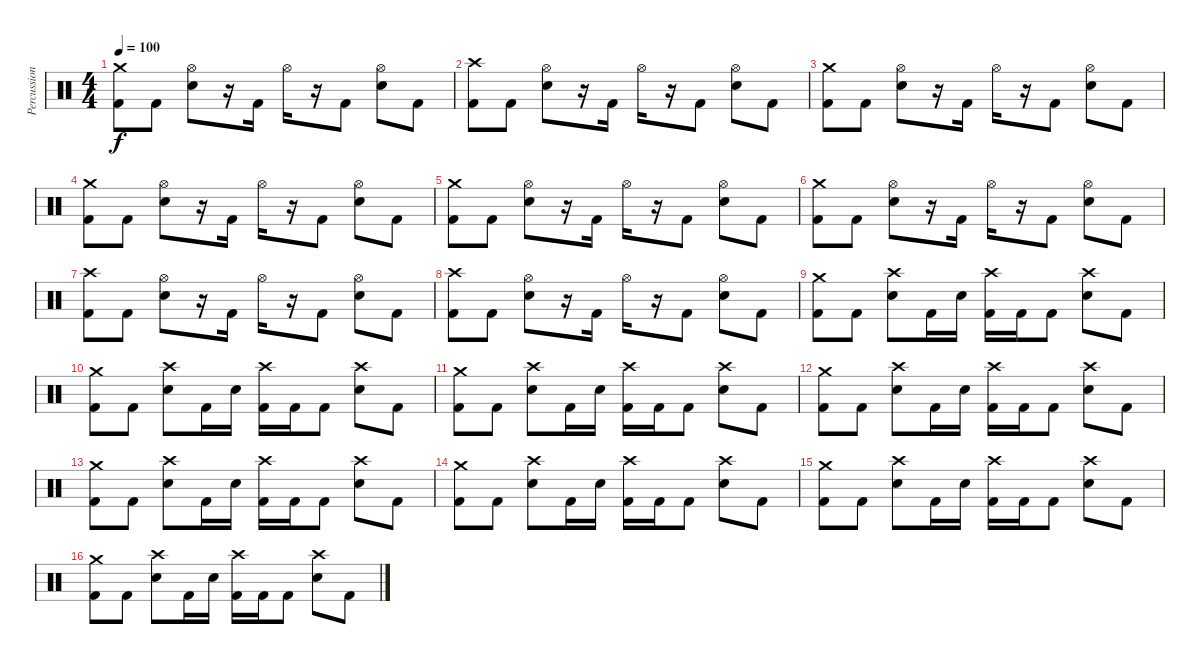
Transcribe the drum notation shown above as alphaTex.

\track ("Percussion" "Percussion") {instrument percussion}
\staff {score}
\articulation defaults
\ts (4 4)
\tempo 100
\clef neutral
\ks c
("Crash medium (hit)" "Kick (hit) 2").8{dy f} "Kick (hit) 2".8 ("Hi-Hat (open)" "Electric Snare (hit)").8 r.16 "Kick (hit) 2".16 "Hi-Hat (open)".16 r.16 "Kick (hit) 2".8 ("Hi-Hat (open)" "Electric Snare (hit)").8 "Kick (hit) 2".8 |
("Crash high (hit)" "Kick (hit) 2").8 "Kick (hit) 2".8 ("Hi-Hat (open)" "Electric Snare (hit)").8 r.16 "Kick (hit) 2".16 "Hi-Hat (open)".16 r.16 "Kick (hit) 2".8 ("Hi-Hat (open)" "Electric Snare (hit)").8 "Kick (hit) 2".8 |
("Crash medium (hit)" "Kick (hit) 2").8 "Kick (hit) 2".8 ("Hi-Hat (open)" "Electric Snare (hit)").8 r.16 "Kick (hit) 2".16 "Hi-Hat (open)".16 r.16 "Kick (hit) 2".8 ("Hi-Hat (open)" "Electric Snare (hit)").8 "Kick (hit) 2".8 |
("Crash medium (hit)" "Kick (hit) 2").8 "Kick (hit) 2".8 ("Hi-Hat (open)" "Electric Snare (hit)").8 r.16 "Kick (hit) 2".16 "Hi-Hat (open)".16 r.16 "Kick (hit) 2".8 ("Hi-Hat (open)" "Electric Snare (hit)").8 "Kick (hit) 2".8 |
("Crash medium (hit)" "Kick (hit) 2").8 "Kick (hit) 2".8 ("Hi-Hat (open)" "Electric Snare (hit)").8 r.16 "Kick (hit) 2".16 "Hi-Hat (open)".16 r.16 "Kick (hit) 2".8 ("Hi-Hat (open)" "Electric Snare (hit)").8 "Kick (hit) 2".8 |
("Crash medium (hit)" "Kick (hit) 2").8 "Kick (hit) 2".8 ("Hi-Hat (open)" "Electric Snare (hit)").8 r.16 "Kick (hit) 2".16 "Hi-Hat (open)".16 r.16 "Kick (hit) 2".8 ("Hi-Hat (open)" "Electric Snare (hit)").8 "Kick (hit) 2".8 |
("Crash high (hit)" "Kick (hit) 2").8 "Kick (hit) 2".8 ("Hi-Hat (open)" "Electric Snare (hit)").8 r.16 "Kick (hit) 2".16 "Hi-Hat (open)".16 r.16 "Kick (hit) 2".8 ("Hi-Hat (open)" "Electric Snare (hit)").8 "Kick (hit) 2".8 |
("Crash high (hit)" "Kick (hit) 2").8 "Kick (hit) 2".8 ("Hi-Hat (open)" "Electric Snare (hit)").8 r.16 "Kick (hit) 2".16 "Hi-Hat (open)".16 r.16 "Kick (hit) 2".8 ("Hi-Hat (open)" "Electric Snare (hit)").8 "Kick (hit) 2".8 |
("Crash medium (hit)" "Kick (hit) 2").8 "Kick (hit) 2".8 ("Crash high (hit)" "Electric Snare (hit)").8 "Kick (hit) 2".16 "Electric Snare (hit)".16 ("Crash high (hit)" "Kick (hit) 2").16 "Kick (hit) 2".16 "Kick (hit) 2".8 ("Crash high (hit)" "Electric Snare (hit)").8 "Kick (hit) 2".8 |
("Crash medium (hit)" "Kick (hit) 2").8 "Kick (hit) 2".8 ("Crash high (hit)" "Electric Snare (hit)").8 "Kick (hit) 2".16 "Electric Snare (hit)".16 ("Crash high (hit)" "Kick (hit) 2").16 "Kick (hit) 2".16 "Kick (hit) 2".8 ("Crash high (hit)" "Electric Snare (hit)").8 "Kick (hit) 2".8 |
("Crash medium (hit)" "Kick (hit) 2").8 "Kick (hit) 2".8 ("Crash high (hit)" "Electric Snare (hit)").8 "Kick (hit) 2".16 "Electric Snare (hit)".16 ("Crash high (hit)" "Kick (hit) 2").16 "Kick (hit) 2".16 "Kick (hit) 2".8 ("Crash high (hit)" "Electric Snare (hit)").8 "Kick (hit) 2".8 |
("Crash medium (hit)" "Kick (hit) 2").8 "Kick (hit) 2".8 ("Crash high (hit)" "Electric Snare (hit)").8 "Kick (hit) 2".16 "Electric Snare (hit)".16 ("Crash high (hit)" "Kick (hit) 2").16 "Kick (hit) 2".16 "Kick (hit) 2".8 ("Crash high (hit)" "Electric Snare (hit)").8 "Kick (hit) 2".8 |
("Crash medium (hit)" "Kick (hit) 2").8 "Kick (hit) 2".8 ("Crash high (hit)" "Electric Snare (hit)").8 "Kick (hit) 2".16 "Electric Snare (hit)".16 ("Crash high (hit)" "Kick (hit) 2").16 "Kick (hit) 2".16 "Kick (hit) 2".8 ("Crash high (hit)" "Electric Snare (hit)").8 "Kick (hit) 2".8 |
("Crash medium (hit)" "Kick (hit) 2").8 "Kick (hit) 2".8 ("Crash high (hit)" "Electric Snare (hit)").8 "Kick (hit) 2".16 "Electric Snare (hit)".16 ("Crash high (hit)" "Kick (hit) 2").16 "Kick (hit) 2".16 "Kick (hit) 2".8 ("Crash high (hit)" "Electric Snare (hit)").8 "Kick (hit) 2".8 |
("Crash medium (hit)" "Kick (hit) 2").8 "Kick (hit) 2".8 ("Crash high (hit)" "Electric Snare (hit)").8 "Kick (hit) 2".16 "Electric Snare (hit)".16 ("Crash high (hit)" "Kick (hit) 2").16 "Kick (hit) 2".16 "Kick (hit) 2".8 ("Crash high (hit)" "Electric Snare (hit)").8 "Kick (hit) 2".8 |
("Crash medium (hit)" "Kick (hit) 2").8 "Kick (hit) 2".8 ("Crash high (hit)" "Electric Snare (hit)").8 "Kick (hit) 2".16 "Electric Snare (hit)".16 ("Crash high (hit)" "Kick (hit) 2").16 "Kick (hit) 2".16 "Kick (hit) 2".8 ("Crash high (hit)" "Electric Snare (hit)").8 "Kick (hit) 2".8
